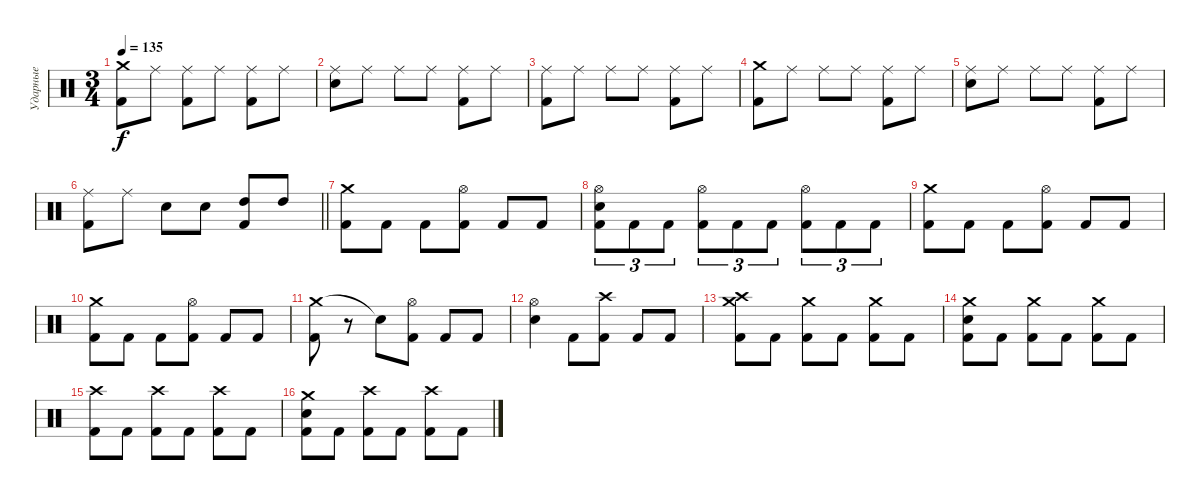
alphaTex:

\track ("Ударные" "Ударные") {instrument percussion}
\staff {score}
\articulation defaults
\ts (3 4)
\tempo 135
\clef neutral
\ks c
("Crash medium (hit)" "Kick (hit) 2").8{dy f} "Ride (middle)".8 ("Ride (middle)" "Kick (hit) 2").8 "Ride (middle)".8 ("Ride (middle)" "Kick (hit) 2").8 "Ride (middle)".8 |
("Ride (middle)" "Electric Snare (hit)").8 "Ride (middle)".8 "Ride (middle)".8 "Ride (middle)".8 ("Ride (middle)" "Kick (hit) 2").8 "Ride (middle)".8 |
("Ride (middle)" "Kick (hit) 2").8 "Ride (middle)".8 "Ride (middle)".8 "Ride (middle)".8 ("Ride (middle)" "Kick (hit) 2").8 "Ride (middle)".8 |
("Crash medium (hit)" "Kick (hit) 2").8 "Ride (middle)".8 "Ride (middle)".8 "Ride (middle)".8 ("Ride (middle)" "Kick (hit) 2").8 "Ride (middle)".8 |
("Ride (middle)" "Electric Snare (hit)").8 "Ride (middle)".8 "Ride (middle)".8 "Ride (middle)".8 ("Ride (middle)" "Kick (hit) 2").8 "Ride (middle)".8 |
\barLineRight lightlight
("Ride (middle)" "Kick (hit) 2").8 "Ride (middle)".8 "Electric Snare (hit)".8 "Electric Snare (hit)".8 ("High Tom (hit)" "Kick (hit) 2").8 "High Tom (hit)".8 |
("Crash medium (hit)" "Kick (hit) 2").8 "Kick (hit) 2".8 "Kick (hit) 2".8 ("Hi-Hat (open)" "Kick (hit) 2").8 "Kick (hit) 2".8 "Kick (hit) 2".8 |
("Hi-Hat (open)" "Electric Snare (hit)" "Kick (hit) 2").8{tu (3 2)} "Kick (hit) 2".8{tu (3 2)} "Kick (hit) 2".8{tu (3 2)} ("Hi-Hat (open)" "Kick (hit) 2").8{tu (3 2)} "Kick (hit) 2".8{tu (3 2)} "Kick (hit) 2".8{tu (3 2)} ("Hi-Hat (open)" "Kick (hit) 2").8{tu (3 2)} "Kick (hit) 2".8{tu (3 2)} "Kick (hit) 2".8{tu (3 2)} |
("Crash medium (hit)" "Kick (hit) 2").8 "Kick (hit) 2".8 "Kick (hit) 2".8 ("Hi-Hat (open)" "Kick (hit) 2").8 "Kick (hit) 2".8 "Kick (hit) 2".8 |
("Crash medium (hit)" "Kick (hit) 2").8 "Kick (hit) 2".8 "Kick (hit) 2".8 ("Hi-Hat (open)" "Kick (hit) 2").8 "Kick (hit) 2".8 "Kick (hit) 2".8 |
("Crash medium (hit)" "Kick (hit) 2").8 r.8 "Snare (hit)"{t}.8 ("Hi-Hat (open)" "Kick (hit) 2").8 "Kick (hit) 2".8 "Kick (hit) 2".8 |
("Hi-Hat (open)" "Electric Snare (hit)").4 "Kick (hit) 2".8 ("Crash high (hit)" "Kick (hit) 2").8 "Kick (hit) 2".8 "Kick (hit) 2".8 |
("Crash medium (hit)" "Crash high (hit)" "Kick (hit) 2").8 "Kick (hit) 2".8 ("Crash medium (hit)" "Kick (hit) 2").8 "Kick (hit) 2".8 ("Crash medium (hit)" "Kick (hit) 2").8 "Kick (hit) 2".8 |
("Crash medium (hit)" "Electric Snare (hit)" "Kick (hit) 2").8 "Kick (hit) 2".8 ("Crash medium (hit)" "Kick (hit) 2").8 "Kick (hit) 2".8 ("Crash medium (hit)" "Kick (hit) 2").8 "Kick (hit) 2".8 |
("Crash high (hit)" "Kick (hit) 2").8 "Kick (hit) 2".8 ("Crash high (hit)" "Kick (hit) 2").8 "Kick (hit) 2".8 ("Crash high (hit)" "Kick (hit) 2").8 "Kick (hit) 2".8 |
("Crash medium (hit)" "Electric Snare (hit)" "Kick (hit) 2").8 "Kick (hit) 2".8 ("Crash high (hit)" "Kick (hit) 2").8 "Kick (hit) 2".8 ("Crash high (hit)" "Kick (hit) 2").8 "Kick (hit) 2".8
